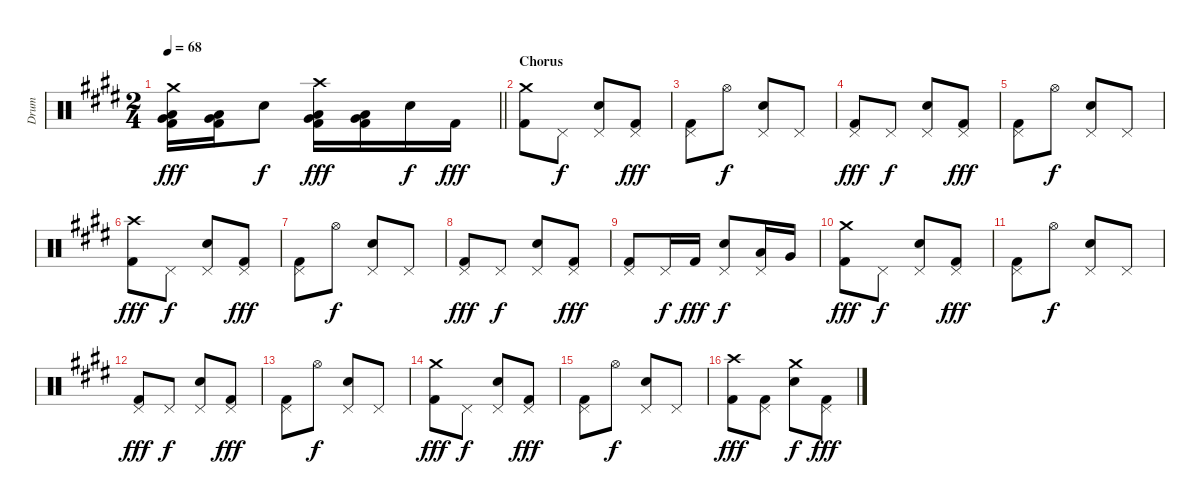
\track ("Drum" "Drum") {instrument percussion}
\staff {score}
\articulation defaults
\ts (2 4)
\tempo 68
\clef neutral
\barLineRight lightlight
\ks e
("Crash medium (hit)" "Low Tom (hit)" "Very Low Tom (hit)" "Kick (hit) 2").16{dy fff} ("Very Low Tom (hit)" "Low Floor Tom (hit)" "Kick (hit) 2").16 "Snare (hit) 2".8{dy f} ("Crash high (hit)" "Low Tom (hit)" "Very Low Tom (hit)" "Kick (hit) 2").16{dy fff} ("Very Low Tom (hit)" "Low Floor Tom (hit)" "Kick (hit) 2").16 "Snare (hit) 2".16{dy f} "Kick (hit) 2".16{dy fff} |
\section ("" "Chorus")
("Crash medium (hit)" "Kick (hit) 2").8 "Pedal Hi-Hat (hit)".8{dy f} ("Pedal Hi-Hat (hit)" "Snare (hit) 2").8 ("Pedal Hi-Hat (hit)" "Kick (hit) 2").8{dy fff} |
("Pedal Hi-Hat (hit)" "Kick (hit) 2").8 "Hi-Hat (open)".8{dy f} ("Pedal Hi-Hat (hit)" "Snare (hit) 2").8 "Pedal Hi-Hat (hit)".8 |
("Pedal Hi-Hat (hit)" "Kick (hit) 2").8{dy fff} "Pedal Hi-Hat (hit)".8{dy f} ("Pedal Hi-Hat (hit)" "Snare (hit) 2").8 ("Pedal Hi-Hat (hit)" "Kick (hit) 2").8{dy fff} |
("Pedal Hi-Hat (hit)" "Kick (hit) 2").8 "Hi-Hat (open)".8{dy f} ("Pedal Hi-Hat (hit)" "Snare (hit) 2").8 "Pedal Hi-Hat (hit)".8 |
("Crash high (hit)" "Kick (hit) 2").8{dy fff} "Pedal Hi-Hat (hit)".8{dy f} ("Pedal Hi-Hat (hit)" "Snare (hit) 2").8 ("Pedal Hi-Hat (hit)" "Kick (hit) 2").8{dy fff} |
("Pedal Hi-Hat (hit)" "Kick (hit) 2").8 "Hi-Hat (open)".8{dy f} ("Pedal Hi-Hat (hit)" "Snare (hit) 2").8 "Pedal Hi-Hat (hit)".8 |
("Pedal Hi-Hat (hit)" "Kick (hit) 2").8{dy fff} "Pedal Hi-Hat (hit)".8{dy f} ("Pedal Hi-Hat (hit)" "Snare (hit) 2").8 ("Pedal Hi-Hat (hit)" "Kick (hit) 2").8{dy fff} |
("Pedal Hi-Hat (hit)" "Kick (hit) 2").8 "Pedal Hi-Hat (hit)".16{dy f} "Kick (hit) 2".16{dy fff} ("Pedal Hi-Hat (hit)" "Snare (hit) 2").8{dy f} ("Pedal Hi-Hat (hit)" "Low Tom (hit)").16 "Very Low Tom (hit)".16 |
("Crash medium (hit)" "Kick (hit) 2").8{dy fff} "Pedal Hi-Hat (hit)".8{dy f} ("Pedal Hi-Hat (hit)" "Snare (hit) 2").8 ("Pedal Hi-Hat (hit)" "Kick (hit) 2").8{dy fff} |
("Pedal Hi-Hat (hit)" "Kick (hit) 2").8 "Hi-Hat (open)".8{dy f} ("Pedal Hi-Hat (hit)" "Snare (hit) 2").8 "Pedal Hi-Hat (hit)".8 |
("Pedal Hi-Hat (hit)" "Kick (hit) 2").8{dy fff} "Pedal Hi-Hat (hit)".8{dy f} ("Pedal Hi-Hat (hit)" "Snare (hit) 2").8 ("Pedal Hi-Hat (hit)" "Kick (hit) 2").8{dy fff} |
("Pedal Hi-Hat (hit)" "Kick (hit) 2").8 "Hi-Hat (open)".8{dy f} ("Pedal Hi-Hat (hit)" "Snare (hit) 2").8 "Pedal Hi-Hat (hit)".8 |
("Crash medium (hit)" "Kick (hit) 2").8{dy fff} "Pedal Hi-Hat (hit)".8{dy f} ("Pedal Hi-Hat (hit)" "Snare (hit) 2").8 ("Pedal Hi-Hat (hit)" "Kick (hit) 2").8{dy fff} |
("Pedal Hi-Hat (hit)" "Kick (hit) 2").8 "Hi-Hat (open)".8{dy f} ("Pedal Hi-Hat (hit)" "Snare (hit) 2").8 "Pedal Hi-Hat (hit)".8 |
("Crash high (hit)" "Kick (hit) 2").8{dy fff} ("Pedal Hi-Hat (hit)" "Kick (hit) 2").8 ("Crash medium (hit)" "Snare (hit) 2").8{dy f} ("Pedal Hi-Hat (hit)" "Kick (hit) 2").8{dy fff}
